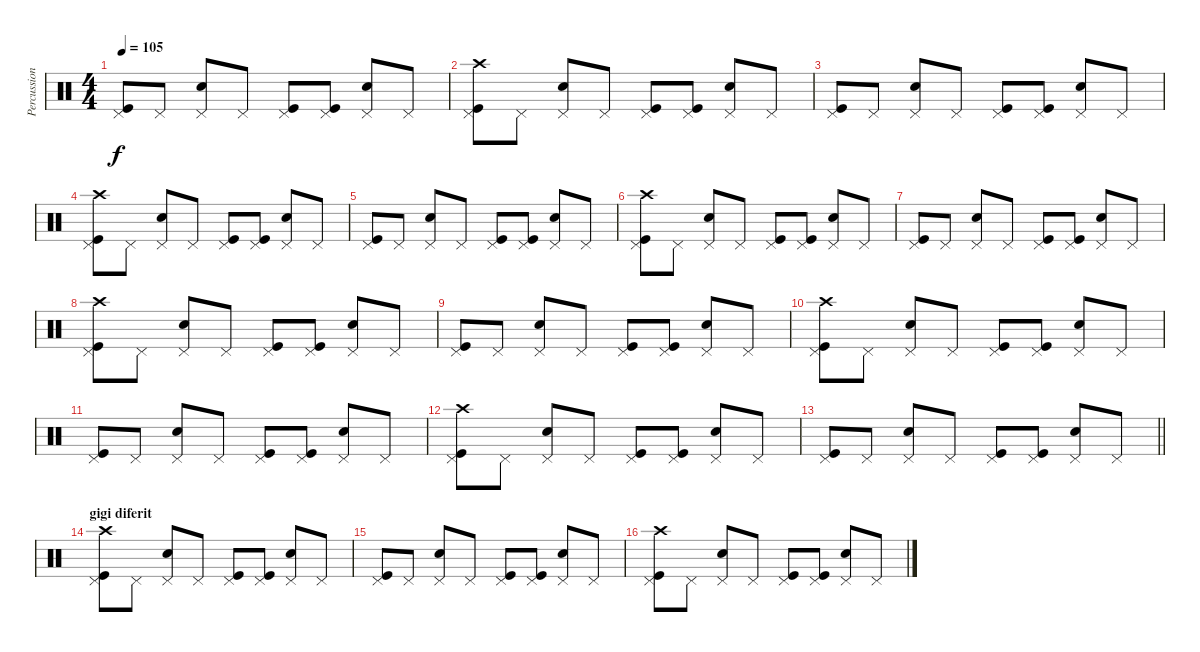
\track ("Percussion" "Percussion") {instrument percussion}
\staff {score}
\articulation defaults
\ts (4 4)
\tempo 105
\clef neutral
\ks c
("Pedal Hi-Hat (hit)" "Kick (hit)").8{dy f} "Pedal Hi-Hat (hit)".8 ("Pedal Hi-Hat (hit)" "Snare (hit) 2").8 "Pedal Hi-Hat (hit)".8 ("Pedal Hi-Hat (hit)" "Kick (hit)").8 ("Pedal Hi-Hat (hit)" "Kick (hit)").8 ("Pedal Hi-Hat (hit)" "Snare (hit) 2").8 "Pedal Hi-Hat (hit)".8 |
("Pedal Hi-Hat (hit)" "Crash high (hit)" "Kick (hit)").8 "Pedal Hi-Hat (hit)".8 ("Pedal Hi-Hat (hit)" "Snare (hit) 2").8 "Pedal Hi-Hat (hit)".8 ("Pedal Hi-Hat (hit)" "Kick (hit)").8 ("Pedal Hi-Hat (hit)" "Kick (hit)").8 ("Pedal Hi-Hat (hit)" "Snare (hit) 2").8 "Pedal Hi-Hat (hit)".8 |
("Pedal Hi-Hat (hit)" "Kick (hit)").8 "Pedal Hi-Hat (hit)".8 ("Pedal Hi-Hat (hit)" "Snare (hit) 2").8 "Pedal Hi-Hat (hit)".8 ("Pedal Hi-Hat (hit)" "Kick (hit)").8 ("Pedal Hi-Hat (hit)" "Kick (hit)").8 ("Pedal Hi-Hat (hit)" "Snare (hit) 2").8 "Pedal Hi-Hat (hit)".8 |
("Pedal Hi-Hat (hit)" "Crash high (hit)" "Kick (hit)").8 "Pedal Hi-Hat (hit)".8 ("Pedal Hi-Hat (hit)" "Snare (hit) 2").8 "Pedal Hi-Hat (hit)".8 ("Pedal Hi-Hat (hit)" "Kick (hit)").8 ("Pedal Hi-Hat (hit)" "Kick (hit)").8 ("Pedal Hi-Hat (hit)" "Snare (hit) 2").8 "Pedal Hi-Hat (hit)".8 |
("Pedal Hi-Hat (hit)" "Kick (hit)").8 "Pedal Hi-Hat (hit)".8 ("Pedal Hi-Hat (hit)" "Snare (hit) 2").8 "Pedal Hi-Hat (hit)".8 ("Pedal Hi-Hat (hit)" "Kick (hit)").8 ("Pedal Hi-Hat (hit)" "Kick (hit)").8 ("Pedal Hi-Hat (hit)" "Snare (hit) 2").8 "Pedal Hi-Hat (hit)".8 |
("Pedal Hi-Hat (hit)" "Crash high (hit)" "Kick (hit)").8 "Pedal Hi-Hat (hit)".8 ("Pedal Hi-Hat (hit)" "Snare (hit) 2").8 "Pedal Hi-Hat (hit)".8 ("Pedal Hi-Hat (hit)" "Kick (hit)").8 ("Pedal Hi-Hat (hit)" "Kick (hit)").8 ("Pedal Hi-Hat (hit)" "Snare (hit) 2").8 "Pedal Hi-Hat (hit)".8 |
("Pedal Hi-Hat (hit)" "Kick (hit)").8 "Pedal Hi-Hat (hit)".8 ("Pedal Hi-Hat (hit)" "Snare (hit) 2").8 "Pedal Hi-Hat (hit)".8 ("Pedal Hi-Hat (hit)" "Kick (hit)").8 ("Pedal Hi-Hat (hit)" "Kick (hit)").8 ("Pedal Hi-Hat (hit)" "Snare (hit) 2").8 "Pedal Hi-Hat (hit)".8 |
("Pedal Hi-Hat (hit)" "Crash high (hit)" "Kick (hit)").8 "Pedal Hi-Hat (hit)".8 ("Pedal Hi-Hat (hit)" "Snare (hit) 2").8 "Pedal Hi-Hat (hit)".8 ("Pedal Hi-Hat (hit)" "Kick (hit)").8 ("Pedal Hi-Hat (hit)" "Kick (hit)").8 ("Pedal Hi-Hat (hit)" "Snare (hit) 2").8 "Pedal Hi-Hat (hit)".8 |
("Pedal Hi-Hat (hit)" "Kick (hit)").8 "Pedal Hi-Hat (hit)".8 ("Pedal Hi-Hat (hit)" "Snare (hit) 2").8 "Pedal Hi-Hat (hit)".8 ("Pedal Hi-Hat (hit)" "Kick (hit)").8 ("Pedal Hi-Hat (hit)" "Kick (hit)").8 ("Pedal Hi-Hat (hit)" "Snare (hit) 2").8 "Pedal Hi-Hat (hit)".8 |
("Pedal Hi-Hat (hit)" "Crash high (hit)" "Kick (hit)").8 "Pedal Hi-Hat (hit)".8 ("Pedal Hi-Hat (hit)" "Snare (hit) 2").8 "Pedal Hi-Hat (hit)".8 ("Pedal Hi-Hat (hit)" "Kick (hit)").8 ("Pedal Hi-Hat (hit)" "Kick (hit)").8 ("Pedal Hi-Hat (hit)" "Snare (hit) 2").8 "Pedal Hi-Hat (hit)".8 |
("Pedal Hi-Hat (hit)" "Kick (hit)").8 "Pedal Hi-Hat (hit)".8 ("Pedal Hi-Hat (hit)" "Snare (hit) 2").8 "Pedal Hi-Hat (hit)".8 ("Pedal Hi-Hat (hit)" "Kick (hit)").8 ("Pedal Hi-Hat (hit)" "Kick (hit)").8 ("Pedal Hi-Hat (hit)" "Snare (hit) 2").8 "Pedal Hi-Hat (hit)".8 |
("Pedal Hi-Hat (hit)" "Crash high (hit)" "Kick (hit)").8 "Pedal Hi-Hat (hit)".8 ("Pedal Hi-Hat (hit)" "Snare (hit) 2").8 "Pedal Hi-Hat (hit)".8 ("Pedal Hi-Hat (hit)" "Kick (hit)").8 ("Pedal Hi-Hat (hit)" "Kick (hit)").8 ("Pedal Hi-Hat (hit)" "Snare (hit) 2").8 "Pedal Hi-Hat (hit)".8 |
\barLineRight lightlight
("Pedal Hi-Hat (hit)" "Kick (hit)").8 "Pedal Hi-Hat (hit)".8 ("Pedal Hi-Hat (hit)" "Snare (hit) 2").8 "Pedal Hi-Hat (hit)".8 ("Pedal Hi-Hat (hit)" "Kick (hit)").8 ("Pedal Hi-Hat (hit)" "Kick (hit)").8 ("Pedal Hi-Hat (hit)" "Snare (hit) 2").8 "Pedal Hi-Hat (hit)".8 |
\section ("" "gigi diferit")
("Pedal Hi-Hat (hit)" "Crash high (hit)" "Kick (hit)").8 "Pedal Hi-Hat (hit)".8 ("Pedal Hi-Hat (hit)" "Snare (hit) 2").8 "Pedal Hi-Hat (hit)".8 ("Pedal Hi-Hat (hit)" "Kick (hit)").8 ("Pedal Hi-Hat (hit)" "Kick (hit)").8 ("Pedal Hi-Hat (hit)" "Snare (hit) 2").8 "Pedal Hi-Hat (hit)".8 |
("Pedal Hi-Hat (hit)" "Kick (hit)").8 "Pedal Hi-Hat (hit)".8 ("Pedal Hi-Hat (hit)" "Snare (hit) 2").8 "Pedal Hi-Hat (hit)".8 ("Pedal Hi-Hat (hit)" "Kick (hit)").8 ("Pedal Hi-Hat (hit)" "Kick (hit)").8 ("Pedal Hi-Hat (hit)" "Snare (hit) 2").8 "Pedal Hi-Hat (hit)".8 |
("Pedal Hi-Hat (hit)" "Crash high (hit)" "Kick (hit)").8 "Pedal Hi-Hat (hit)".8 ("Pedal Hi-Hat (hit)" "Snare (hit) 2").8 "Pedal Hi-Hat (hit)".8 ("Pedal Hi-Hat (hit)" "Kick (hit)").8 ("Pedal Hi-Hat (hit)" "Kick (hit)").8 ("Pedal Hi-Hat (hit)" "Snare (hit) 2").8 "Pedal Hi-Hat (hit)".8
